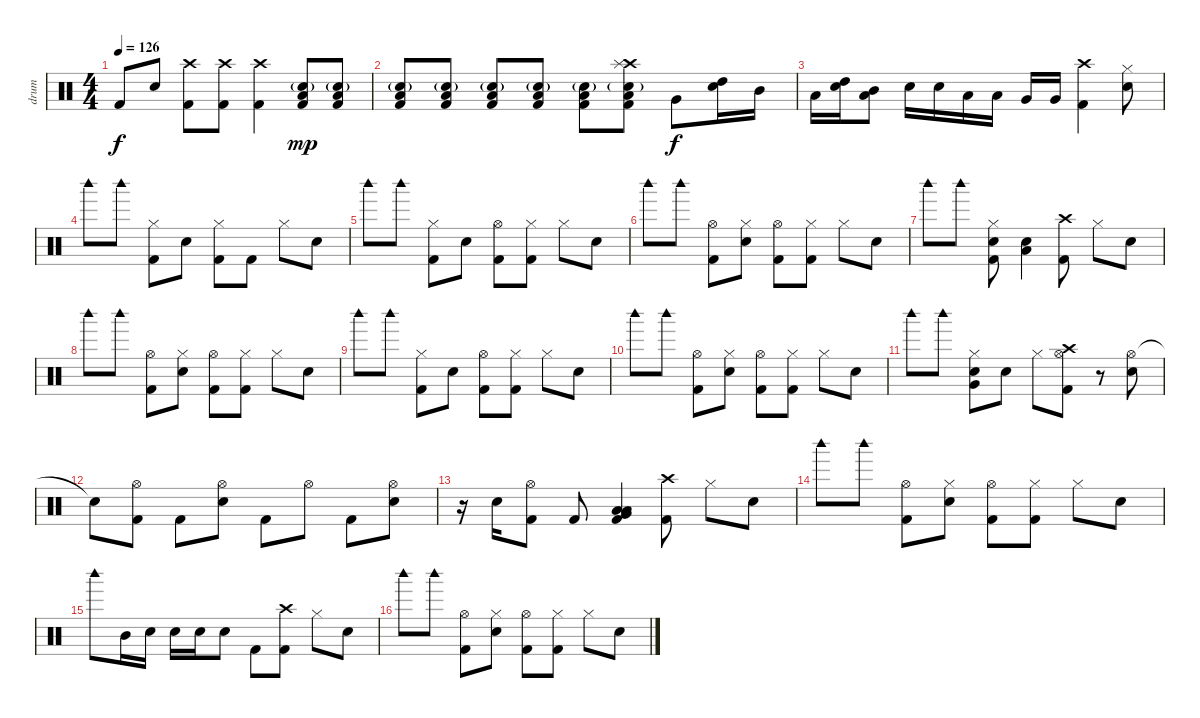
\track ("drum" "drum") {instrument percussion}
\staff {score}
\articulation defaults
\ts (4 4)
\tempo 126
\clef neutral
\ks c "Kick (hit) 2".8{dy f} "Snare (hit) 2".8
("Crash high (hit)" "Kick (hit) 2").8 ("Crash high (hit)" "Kick (hit) 2").8 ("Crash high (hit)" "Kick (hit) 2").4 ("Low Floor Tom (hit)" "Snare (hit) 2"{g} "Kick (hit) 2").8{dy mp} ("Low Floor Tom (hit)" "Snare (hit) 2"{g} "Kick (hit) 2").8 |
("Low Floor Tom (hit)" "Snare (hit) 2"{g} "Kick (hit) 2").8 ("Low Floor Tom (hit)" "Snare (hit) 2"{g} "Kick (hit) 2").8 ("Low Floor Tom (hit)" "Snare (hit) 2"{g} "Kick (hit) 2").8 ("Low Floor Tom (hit)" "Snare (hit) 2"{g} "Kick (hit) 2").8 ("Low Floor Tom (hit)" "Snare (hit) 2"{g} "Kick (hit) 2").8 ("Crash high (hit)" "Splash (hit)" "Low Floor Tom (hit)" "Snare (hit) 2"{g} "Kick (hit) 2").8 "Very Low Tom (hit)".8{dy f} ("High Tom (hit)" "Snare (hit) 2").16 "Mid Tom (hit)".16 |
"Low Tom (hit)".16 ("High Tom (hit)" "Snare (hit) 2").16 ("Low Floor Tom (hit)" "Mid Tom (hit)").8 "Snare (hit) 2".16 "Snare (hit) 2".16 "Low Tom (hit)".16 "Low Tom (hit)".16 "Very Low Tom (hit)".16 "Very Low Tom (hit)".16 ("Crash high (hit)" "Kick (hit) 2").4 ("Hi-Hat (closed)" "Snare (hit) 2").8 |
"Woodblock high (hit)".8 "Woodblock high (hit)".8 ("Hi-Hat (closed)" "Kick (hit) 2").8 "Snare (hit) 2".8 ("Hi-Hat (closed)" "Kick (hit) 2").8 "Kick (hit) 2".8 "Hi-Hat (closed)".8 "Snare (hit) 2".8 |
"Woodblock high (hit)".8 "Woodblock high (hit)".8 ("Hi-Hat (closed)" "Kick (hit) 2").8 "Snare (hit) 2".8 ("Hi-Hat (open)" "Kick (hit) 2").8 ("Hi-Hat (closed)" "Kick (hit) 2").8 "Hi-Hat (closed)".8 "Snare (hit) 2".8 |
"Woodblock high (hit)".8 "Woodblock high (hit)".8 ("Hi-Hat (open)" "Kick (hit) 2").8 ("Hi-Hat (closed)" "Snare (hit) 2").8 ("Hi-Hat (open)" "Kick (hit) 2").8 ("Hi-Hat (closed)" "Kick (hit) 2").8 "Hi-Hat (closed)".8 "Snare (hit) 2".8 |
"Woodblock high (hit)".8 "Woodblock high (hit)".8 ("Hi-Hat (closed)" "Snare (hit) 2" "Kick (hit) 2").8 ("Snare (hit) 2" "Low Floor Tom (hit)").4 ("Crash high (hit)" "Kick (hit) 2").8 "Hi-Hat (closed)".8 "Snare (hit) 2".8 |
"Woodblock high (hit)".8 "Woodblock high (hit)".8 ("Hi-Hat (open)" "Kick (hit) 2").8 ("Hi-Hat (closed)" "Snare (hit) 2").8 ("Hi-Hat (open)" "Kick (hit) 2").8 ("Hi-Hat (closed)" "Kick (hit) 2").8 "Hi-Hat (closed)".8 "Snare (hit) 2".8 |
"Woodblock high (hit)".8 "Woodblock high (hit)".8 ("Hi-Hat (closed)" "Kick (hit) 2").8 "Snare (hit) 2".8 ("Hi-Hat (open)" "Kick (hit) 2").8 ("Hi-Hat (closed)" "Kick (hit) 2").8 "Hi-Hat (closed)".8 "Snare (hit) 2".8 |
"Woodblock high (hit)".8 "Woodblock high (hit)".8 ("Hi-Hat (open)" "Kick (hit) 2").8 ("Hi-Hat (closed)" "Snare (hit) 2").8 ("Hi-Hat (open)" "Kick (hit) 2").8 ("Hi-Hat (closed)" "Kick (hit) 2").8 "Hi-Hat (closed)".8 "Snare (hit) 2".8 |
"Woodblock high (hit)".8 "Woodblock high (hit)".8 ("Hi-Hat (closed)" "Snare (hit) 2" "Very Low Tom (hit)").8 "Snare (hit) 2".8 "Hi-Hat (closed)".8 ("Crash high (hit)" "Hi-Hat (open)" "Kick (hit) 2").8 r.8 ("Hi-Hat (open)" "Snare (hit) 2").8 |
"Snare (hit)"{t}.8 ("Hi-Hat (open)" "Kick (hit) 2").8 "Kick (hit) 2".8 ("Hi-Hat (open)" "Snare (hit) 2").8 "Kick (hit) 2".8 "Hi-Hat (open)".8 "Kick (hit) 2".8 ("Hi-Hat (open)" "Snare (hit) 2").8 |
r.16 "Snare (hit) 2".16 ("Hi-Hat (open)" "Kick (hit) 2").8 "Kick (hit) 2".8 ("Very Low Tom (hit)" "Low Tom (hit)" "Low Floor Tom (hit)" "Kick (hit) 2").4 ("Crash high (hit)" "Kick (hit) 2").8 "Hi-Hat (closed)".8 "Snare (hit) 2".8 |
"Woodblock high (hit)".8 "Woodblock high (hit)".8 ("Hi-Hat (open)" "Kick (hit) 2").8 ("Hi-Hat (closed)" "Snare (hit) 2").8 ("Hi-Hat (open)" "Kick (hit) 2").8 ("Hi-Hat (closed)" "Kick (hit) 2").8 "Hi-Hat (closed)".8 "Snare (hit) 2".8 |
"Woodblock high (hit)".8 "Mid Tom (hit)".16 "Snare (hit) 2".16 "Snare (hit) 2".16 "Snare (hit) 2".16 "Snare (hit) 2".8 "Kick (hit) 2".8 ("Crash high (hit)" "Kick (hit) 2").8 "Hi-Hat (closed)".8 "Snare (hit) 2".8 |
"Woodblock high (hit)".8 "Woodblock high (hit)".8 ("Hi-Hat (open)" "Kick (hit) 2").8 ("Hi-Hat (closed)" "Snare (hit) 2").8 ("Hi-Hat (open)" "Kick (hit) 2").8 ("Hi-Hat (closed)" "Kick (hit) 2").8 "Hi-Hat (closed)".8 "Snare (hit) 2".8
